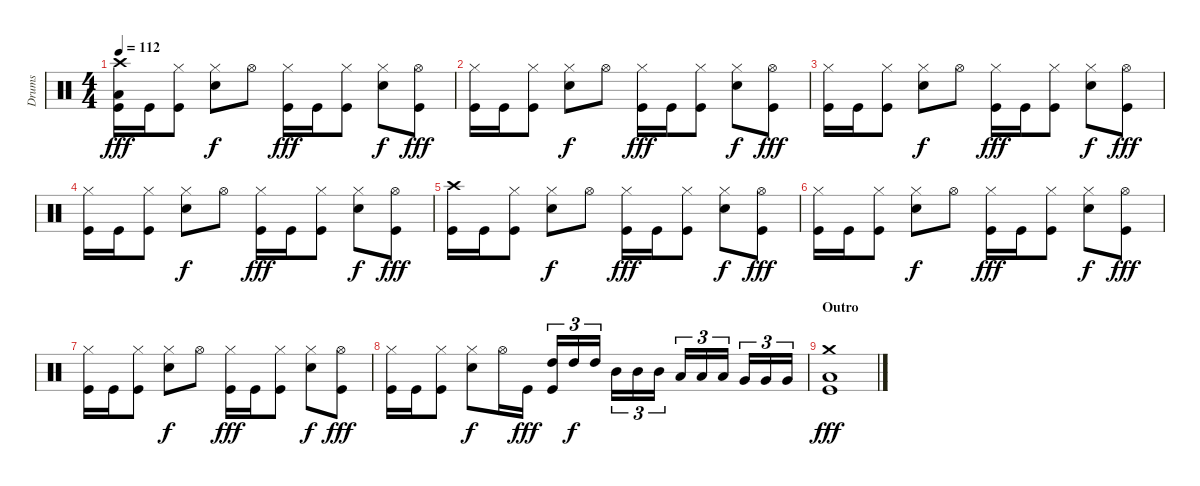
\track ("Drums" "Drums") {instrument percussion}
\staff {score}
\articulation defaults
\ts (4 4)
\tempo 112
\clef neutral
\ks c
("Crash high (hit)" "Low Floor Tom (hit)" "Kick (hit)").16{dy fff} "Kick (hit)".16 ("Hi-Hat (closed)" "Kick (hit)").8 ("Hi-Hat (closed)" "Snare (hit) 2").8{dy f} "Hi-Hat (open)".8 ("Hi-Hat (closed)" "Kick (hit)").16{dy fff} "Kick (hit)".16 ("Hi-Hat (closed)" "Kick (hit)").8 ("Hi-Hat (closed)" "Snare (hit) 2").8{dy f} ("Hi-Hat (open)" "Kick (hit)").8{dy fff} |
("Hi-Hat (closed)" "Kick (hit)").16 "Kick (hit)".16 ("Hi-Hat (closed)" "Kick (hit)").8 ("Hi-Hat (closed)" "Snare (hit) 2").8{dy f} "Hi-Hat (open)".8 ("Hi-Hat (closed)" "Kick (hit)").16{dy fff} "Kick (hit)".16 ("Hi-Hat (closed)" "Kick (hit)").8 ("Hi-Hat (closed)" "Snare (hit) 2").8{dy f} ("Hi-Hat (open)" "Kick (hit)").8{dy fff} |
("Hi-Hat (closed)" "Kick (hit)").16 "Kick (hit)".16 ("Hi-Hat (closed)" "Kick (hit)").8 ("Hi-Hat (closed)" "Snare (hit) 2").8{dy f} "Hi-Hat (open)".8 ("Hi-Hat (closed)" "Kick (hit)").16{dy fff} "Kick (hit)".16 ("Hi-Hat (closed)" "Kick (hit)").8 ("Hi-Hat (closed)" "Snare (hit) 2").8{dy f} ("Hi-Hat (open)" "Kick (hit)").8{dy fff} |
("Hi-Hat (closed)" "Kick (hit)").16 "Kick (hit)".16 ("Hi-Hat (closed)" "Kick (hit)").8 ("Hi-Hat (closed)" "Snare (hit) 2").8{dy f} "Hi-Hat (open)".8 ("Hi-Hat (closed)" "Kick (hit)").16{dy fff} "Kick (hit)".16 ("Hi-Hat (closed)" "Kick (hit)").8 ("Hi-Hat (closed)" "Snare (hit) 2").8{dy f} ("Hi-Hat (open)" "Kick (hit)").8{dy fff} |
("Crash high (hit)" "Kick (hit)").16 "Kick (hit)".16 ("Hi-Hat (closed)" "Kick (hit)").8 ("Hi-Hat (closed)" "Snare (hit) 2").8{dy f} "Hi-Hat (open)".8 ("Hi-Hat (closed)" "Kick (hit)").16{dy fff} "Kick (hit)".16 ("Hi-Hat (closed)" "Kick (hit)").8 ("Hi-Hat (closed)" "Snare (hit) 2").8{dy f} ("Hi-Hat (open)" "Kick (hit)").8{dy fff} |
("Hi-Hat (closed)" "Kick (hit)").16 "Kick (hit)".16 ("Hi-Hat (closed)" "Kick (hit)").8 ("Hi-Hat (closed)" "Snare (hit) 2").8{dy f} "Hi-Hat (open)".8 ("Hi-Hat (closed)" "Kick (hit)").16{dy fff} "Kick (hit)".16 ("Hi-Hat (closed)" "Kick (hit)").8 ("Hi-Hat (closed)" "Snare (hit) 2").8{dy f} ("Hi-Hat (open)" "Kick (hit)").8{dy fff} |
("Hi-Hat (closed)" "Kick (hit)").16 "Kick (hit)".16 ("Hi-Hat (closed)" "Kick (hit)").8 ("Hi-Hat (closed)" "Snare (hit) 2").8{dy f} "Hi-Hat (open)".8 ("Hi-Hat (closed)" "Kick (hit)").16{dy fff} "Kick (hit)".16 ("Hi-Hat (closed)" "Kick (hit)").8 ("Hi-Hat (closed)" "Snare (hit) 2").8{dy f} ("Hi-Hat (open)" "Kick (hit)").8{dy fff} |
("Hi-Hat (closed)" "Kick (hit)").16 "Kick (hit)".16 ("Hi-Hat (closed)" "Kick (hit)").8 ("Hi-Hat (closed)" "Snare (hit) 2").8{dy f} "Hi-Hat (open)".16 "Kick (hit)".16{dy fff} ("High Tom (hit)" "Kick (hit)").16{tu (3 2)} "High Tom (hit)".16{tu (3 2) dy f} "High Tom (hit)".16{tu (3 2)} "Mid Tom (hit)".16{tu (3 2)} "Mid Tom (hit)".16{tu (3 2)} "Mid Tom (hit)".16{tu (3 2)} "Low Tom (hit)".16{tu (3 2)} "Low Tom (hit)".16{tu (3 2)} "Low Tom (hit)".16{tu (3 2)} "Very Low Tom (hit)".16{tu (3 2)} "Very Low Tom (hit)".16{tu (3 2)} "Very Low Tom (hit)".16{tu (3 2)} |
\section ("" "Outro")
("Crash medium (hit)" "Low Floor Tom (hit)" "Kick (hit)").1{dy fff}
